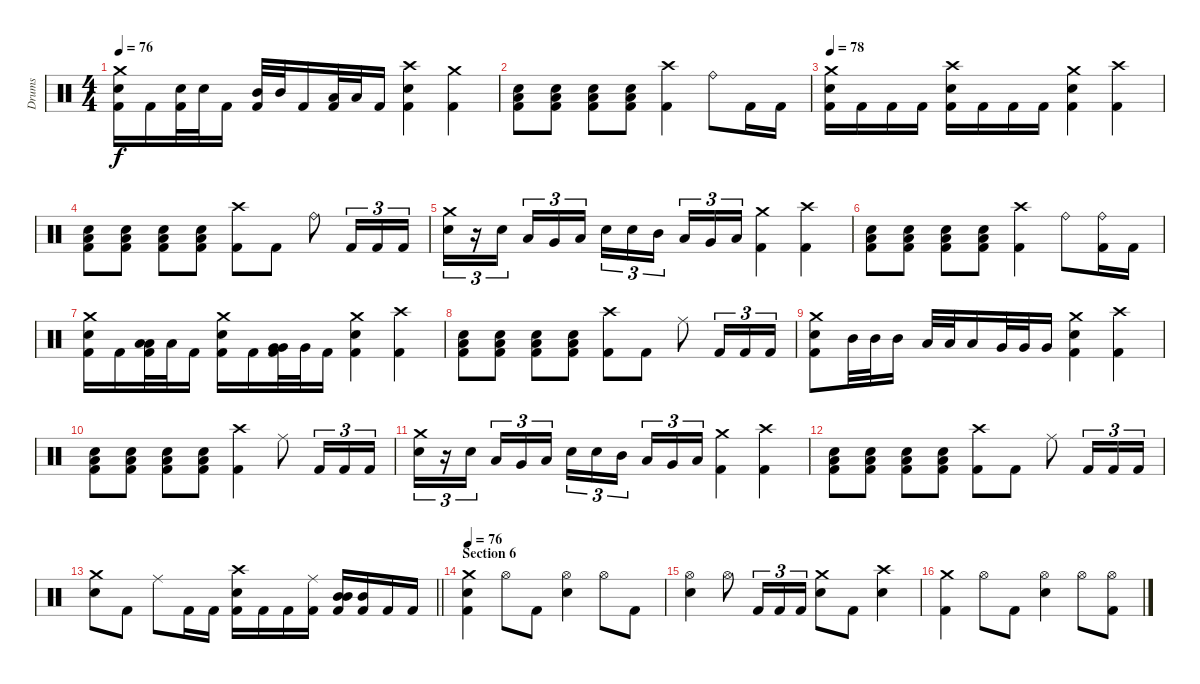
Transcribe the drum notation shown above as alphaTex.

\track ("Drums" "Drums") {instrument percussion}
\staff {score}
\articulation defaults
\ts (4 4)
\tempo 76
\clef neutral
\ks c
("Crash medium (hit)" "Electric Snare (hit)" "Kick (hit) 2").16{dy f} "Kick (hit) 2".16 ("Electric Snare (hit)" "Kick (hit) 2").32 "Electric Snare (hit)".32 "Kick (hit) 2".16 ("Mid Tom (hit)" "Kick (hit) 2").32 "Mid Tom (hit)".32 "Kick (hit) 2".16 ("Low Tom (hit)" "Kick (hit) 2").32 "Low Tom (hit)".32 "Kick (hit) 2".16 ("Crash high (hit)" "Electric Snare (hit)" "Kick (hit) 2").4 ("Crash medium (hit)" "Kick (hit) 2").4 |
("Low Floor Tom (hit)" "Electric Snare (hit)" "Kick (hit) 2").8 ("Low Floor Tom (hit)" "Electric Snare (hit)" "Kick (hit) 2").8 ("Low Floor Tom (hit)" "Electric Snare (hit)" "Kick (hit) 2").8 ("Low Floor Tom (hit)" "Electric Snare (hit)" "Kick (hit) 2").8 ("Crash high (hit)" "Kick (hit) 2").4 "Ride (bell)".8 "Kick (hit) 2".16 "Kick (hit) 2".16 |
\tempo 78
("Crash medium (hit)" "Electric Snare (hit)" "Kick (hit) 2").16 "Kick (hit) 2".16 "Kick (hit) 2".16 "Kick (hit) 2".16 ("Crash high (hit)" "Electric Snare (hit)" "Kick (hit) 2").16 "Kick (hit) 2".16 "Kick (hit) 2".16 "Kick (hit) 2".16 ("Crash medium (hit)" "Electric Snare (hit)" "Kick (hit) 2").4 ("Crash high (hit)" "Kick (hit) 2").4 |
("Low Floor Tom (hit)" "Electric Snare (hit)" "Kick (hit) 2").8 ("Low Floor Tom (hit)" "Electric Snare (hit)" "Kick (hit) 2").8 ("Low Floor Tom (hit)" "Electric Snare (hit)" "Kick (hit) 2").8 ("Low Floor Tom (hit)" "Electric Snare (hit)" "Kick (hit) 2").8 ("Crash high (hit)" "Kick (hit) 2").8 "Kick (hit) 2".8 "Ride (bell)".8 "Kick (hit) 2".16{tu (3 2)} "Kick (hit) 2".16{tu (3 2)} "Kick (hit) 2".16{tu (3 2)} |
("Crash medium (hit)" "Electric Snare (hit)").16{tu (3 2)} r.16{tu (3 2)} "Electric Snare (hit)".16{tu (3 2) beam splitsecondary} "Low Tom (hit)".16{tu (3 2)} "Very Low Tom (hit)".16{tu (3 2)} "Low Floor Tom (hit)".16{tu (3 2)} "Electric Snare (hit)".16{tu (3 2)} "Electric Snare (hit)".16{tu (3 2)} "Mid Tom (hit)".16{tu (3 2) beam splitsecondary} "Low Tom (hit)".16{tu (3 2)} "Very Low Tom (hit)".16{tu (3 2)} "Low Floor Tom (hit)".16{tu (3 2)} ("Crash medium (hit)" "Kick (hit) 2").4 ("Crash high (hit)" "Kick (hit) 2").4 |
("Low Floor Tom (hit)" "Electric Snare (hit)" "Kick (hit) 2").8 ("Low Floor Tom (hit)" "Electric Snare (hit)" "Kick (hit) 2").8 ("Low Floor Tom (hit)" "Electric Snare (hit)" "Kick (hit) 2").8 ("Low Floor Tom (hit)" "Electric Snare (hit)" "Kick (hit) 2").8 ("Crash high (hit)" "Kick (hit) 2").4 "Ride (bell)".8 ("Ride (bell)" "Kick (hit) 2").16 "Kick (hit) 2".16 |
("Crash medium (hit)" "Electric Snare (hit)" "Kick (hit) 2").16 "Kick (hit) 2".16 ("Low Tom (hit)" "Low Tom (hit)" "Kick (hit) 2").32{bd 60} "Low Tom (hit)".32 "Kick (hit) 2".16 ("Crash medium (hit)" "Electric Snare (hit)" "Kick (hit) 2").16 "Kick (hit) 2".16 ("Very Low Tom (hit)" "Very Low Tom (hit)" "Kick (hit) 2").32{bd 60} "Very Low Tom (hit)".32 "Kick (hit) 2".16 ("Crash medium (hit)" "Electric Snare (hit)" "Kick (hit) 2").4 ("Crash high (hit)" "Kick (hit) 2").4 |
("Low Floor Tom (hit)" "Electric Snare (hit)" "Kick (hit) 2").8 ("Low Floor Tom (hit)" "Electric Snare (hit)" "Kick (hit) 2").8 ("Low Floor Tom (hit)" "Electric Snare (hit)" "Kick (hit) 2").8 ("Low Floor Tom (hit)" "Electric Snare (hit)" "Kick (hit) 2").8 ("Crash high (hit)" "Kick (hit) 2").8 "Kick (hit) 2".8 "Ride (middle)".8 "Kick (hit) 2".16{tu (3 2)} "Kick (hit) 2".16{tu (3 2)} "Kick (hit) 2".16{tu (3 2)} |
("Crash medium (hit)" "Electric Snare (hit)" "Kick (hit) 2").8 "Mid Tom (hit)".32 "Mid Tom (hit)".32 "Mid Tom (hit)".16 "Low Tom (hit)".32 "Low Tom (hit)".32 "Low Tom (hit)".16 "Very Low Tom (hit)".32 "Very Low Tom (hit)".32 "Very Low Tom (hit)".16 ("Crash medium (hit)" "Electric Snare (hit)" "Kick (hit) 2").4 ("Crash high (hit)" "Kick (hit) 2").4 |
("Low Floor Tom (hit)" "Electric Snare (hit)" "Kick (hit) 2").8 ("Low Floor Tom (hit)" "Electric Snare (hit)" "Kick (hit) 2").8 ("Low Floor Tom (hit)" "Electric Snare (hit)" "Kick (hit) 2").8 ("Low Floor Tom (hit)" "Electric Snare (hit)" "Kick (hit) 2").8 ("Crash high (hit)" "Kick (hit) 2").4 "Ride (middle)".8 "Kick (hit) 2".16{tu (3 2)} "Kick (hit) 2".16{tu (3 2)} "Kick (hit) 2".16{tu (3 2)} |
("Crash medium (hit)" "Electric Snare (hit)").16{tu (3 2)} r.16{tu (3 2)} "Electric Snare (hit)".16{tu (3 2) beam splitsecondary} "Low Tom (hit)".16{tu (3 2)} "Very Low Tom (hit)".16{tu (3 2)} "Low Floor Tom (hit)".16{tu (3 2)} "Electric Snare (hit)".16{tu (3 2)} "Electric Snare (hit)".16{tu (3 2)} "Mid Tom (hit)".16{tu (3 2) beam splitsecondary} "Low Tom (hit)".16{tu (3 2)} "Very Low Tom (hit)".16{tu (3 2)} "Low Floor Tom (hit)".16{tu (3 2)} ("Crash medium (hit)" "Kick (hit) 2").4 ("Crash high (hit)" "Kick (hit) 2").4 |
("Low Floor Tom (hit)" "Electric Snare (hit)" "Kick (hit) 2").8 ("Low Floor Tom (hit)" "Electric Snare (hit)" "Kick (hit) 2").8 ("Low Floor Tom (hit)" "Electric Snare (hit)" "Kick (hit) 2").8 ("Low Floor Tom (hit)" "Electric Snare (hit)" "Kick (hit) 2").8 ("Crash high (hit)" "Kick (hit) 2").8 "Kick (hit) 2".8 "Ride (middle)".8 "Kick (hit) 2".16{tu (3 2)} "Kick (hit) 2".16{tu (3 2)} "Kick (hit) 2".16{tu (3 2)} |
\barLineRight lightlight
("Crash medium (hit)" "Electric Snare (hit)").8 "Kick (hit) 2".8 "Ride (middle)".8 "Kick (hit) 2".16 "Kick (hit) 2".16 ("Crash high (hit)" "Electric Snare (hit)" "Kick (hit) 2").16 "Kick (hit) 2".16 "Kick (hit) 2".16 ("Ride (middle)" "Kick (hit) 2").16 ("Mid Tom (hit)" "Mid Tom (hit)" "Kick (hit) 2").16 ("Mid Tom (hit)" "Kick (hit) 2").16 "Kick (hit) 2".16 "Kick (hit) 2".16 |
\section ("" "Section 6")
\tempo 76
("Crash medium (hit)" "Electric Snare (hit)" "Kick (hit) 2").4 "Hi-Hat (open)".8 "Kick (hit) 2".8 ("Hi-Hat (open)" "Electric Snare (hit)").4 "Hi-Hat (open)".8 "Kick (hit) 2".8 |
("Hi-Hat (open)" "Electric Snare (hit)").4 "Hi-Hat (open)".8 "Kick (hit) 2".16{tu (3 2)} "Kick (hit) 2".16{tu (3 2)} "Kick (hit) 2".16{tu (3 2)} ("Crash medium (hit)" "Electric Snare (hit)").8 "Kick (hit) 2".8 ("Crash high (hit)" "Electric Snare (hit)").4 |
("Crash medium (hit)" "Kick (hit) 2").4 "Hi-Hat (open)".8 "Kick (hit) 2".8 ("Hi-Hat (open)" "Electric Snare (hit)").4 "Hi-Hat (open)".8 ("Hi-Hat (open)" "Kick (hit) 2").8
